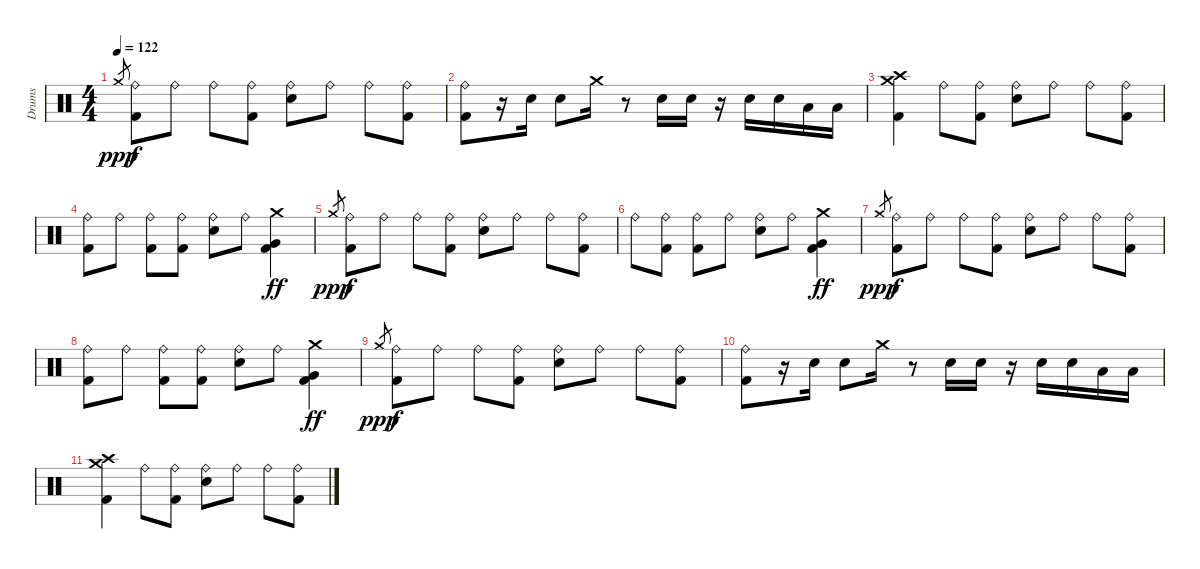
\track ("Drums" "Drums") {instrument percussion}
\staff {score}
\articulation defaults
\ts (4 4)
\tempo 122
\clef neutral
\ks c "Crash medium (hit)".8{gr dy ppp}
("Ride (bell)" "Kick (hit) 2").8{dy f} "Ride (bell)".8 "Ride (bell)".8 ("Ride (bell)" "Kick (hit) 2").8 ("Ride (bell)" "Snare (hit) 2").8 "Ride (bell)".8 "Ride (bell)".8 ("Ride (bell)" "Kick (hit) 2").8 |
("Ride (bell)" "Kick (hit) 2").8 r.16 "Snare (hit) 2".16 "Snare (hit) 2".8 "Crash medium (hit)".16 r.8 "Snare (hit) 2".16 "Snare (hit) 2".16 r.16 "Snare (hit) 2".16 "Snare (hit) 2".16 "Low Tom (hit)".16 "Low Tom (hit)".16 |
("Crash high (hit)" "Crash medium (hit)" "Kick (hit) 2").4{volume 10} "Ride (bell)".8 ("Ride (bell)" "Kick (hit) 2").8 ("Ride (bell)" "Snare (hit) 2").8 "Ride (bell)".8 "Ride (bell)".8 ("Ride (bell)" "Kick (hit) 2").8 |
("Ride (bell)" "Kick (hit) 2").8 "Ride (bell)".8 ("Ride (bell)" "Kick (hit) 2").8 ("Ride (bell)" "Kick (hit) 2").8 ("Ride (bell)" "Snare (hit) 2").8 "Ride (bell)".8 ("Crash medium (hit)" "Very Low Tom (hit)" "Kick (hit) 2").4{dy ff} |
"Crash medium (hit)".8{gr dy ppp} ("Ride (bell)" "Kick (hit) 2").8{dy f} "Ride (bell)".8 "Ride (bell)".8 ("Ride (bell)" "Kick (hit) 2").8 ("Ride (bell)" "Snare (hit) 2").8 "Ride (bell)".8 "Ride (bell)".8 ("Ride (bell)" "Kick (hit) 2").8 |
"Ride (bell)".8 ("Ride (bell)" "Kick (hit) 2").8 ("Ride (bell)" "Kick (hit) 2").8 "Ride (bell)".8 ("Ride (bell)" "Snare (hit) 2").8 "Ride (bell)".8 ("Crash medium (hit)" "Very Low Tom (hit)" "Kick (hit) 2").4{dy ff} |
"Crash medium (hit)".8{gr dy ppp} ("Ride (bell)" "Kick (hit) 2").8{dy f volume 2} "Ride (bell)".8 "Ride (bell)".8 ("Ride (bell)" "Kick (hit) 2").8 ("Ride (bell)" "Snare (hit) 2").8 "Ride (bell)".8 "Ride (bell)".8 ("Ride (bell)" "Kick (hit) 2").8 |
("Ride (bell)" "Kick (hit) 2").8 "Ride (bell)".8 ("Ride (bell)" "Kick (hit) 2").8 ("Ride (bell)" "Kick (hit) 2").8 ("Ride (bell)" "Snare (hit) 2").8 "Ride (bell)".8 ("Crash medium (hit)" "Very Low Tom (hit)" "Kick (hit) 2").4{dy ff} |
"Crash medium (hit)".8{gr dy ppp} ("Ride (bell)" "Kick (hit) 2").8{dy f} "Ride (bell)".8 "Ride (bell)".8 ("Ride (bell)" "Kick (hit) 2").8 ("Ride (bell)" "Snare (hit) 2").8 "Ride (bell)".8 "Ride (bell)".8 ("Ride (bell)" "Kick (hit) 2").8 |
("Ride (bell)" "Kick (hit) 2").8 r.16 "Snare (hit) 2".16 "Snare (hit) 2".8 "Crash medium (hit)".16 r.8 "Snare (hit) 2".16 "Snare (hit) 2".16 r.16 "Snare (hit) 2".16 "Snare (hit) 2".16 "Low Tom (hit)".16 "Low Tom (hit)".16 |
("Crash high (hit)" "Crash medium (hit)" "Kick (hit) 2").4{volume 0} "Ride (bell)".8 ("Ride (bell)" "Kick (hit) 2").8 ("Ride (bell)" "Snare (hit) 2").8 "Ride (bell)".8 "Ride (bell)".8 ("Ride (bell)" "Kick (hit) 2").8
